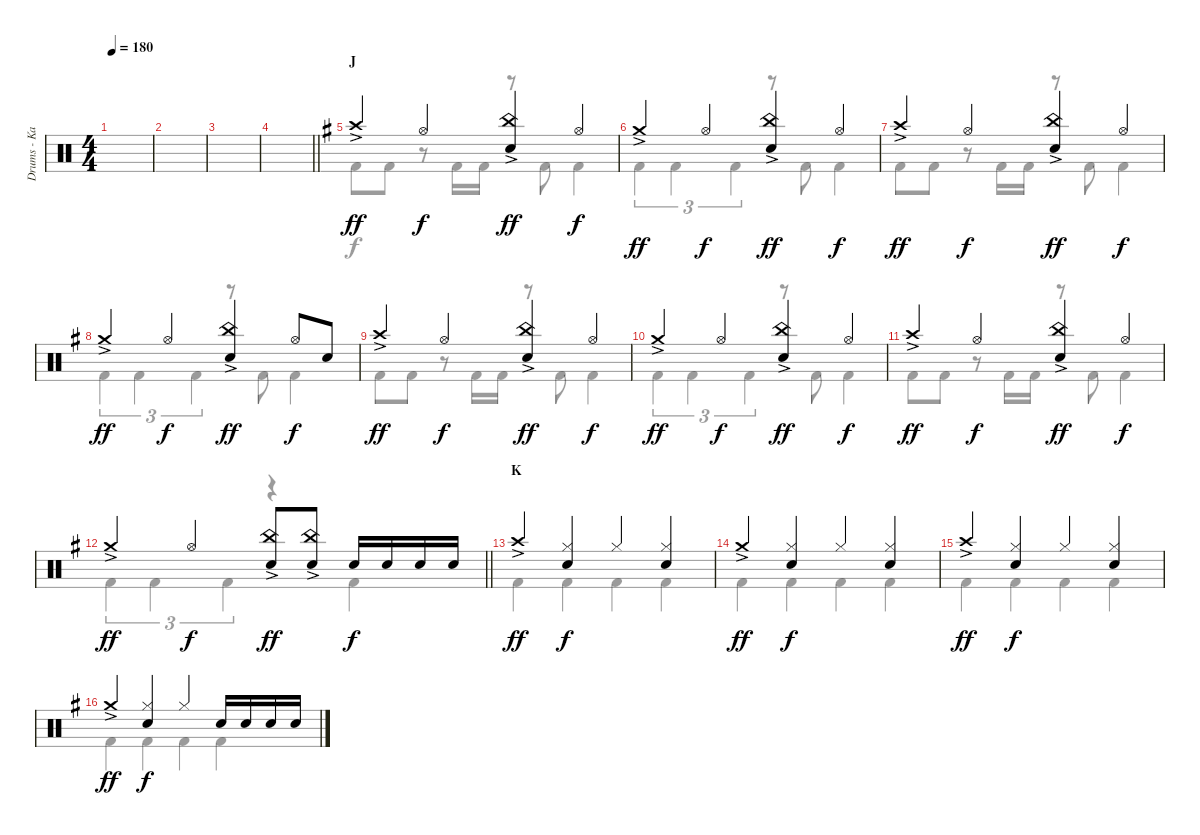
\track ("Drums - Kai" "Drums - Ka") {instrument percussion}
\staff {score}
\articulation defaults
\voice
\ts (4 4)
\tempo 180
\clef neutral
\ks c
|
|
|
\barLineRight lightlight
|
\section ("" "J")
\ks g "Crash high (hit)"{ac}.4{dy ff} "Hi-Hat (open)".4{dy f}
("China (hit)"{ac} "Snare (hit) 2").4{dy ff} "Hi-Hat (open)".4{dy f} |
"Crash medium (hit)"{ac}.4{dy ff} "Hi-Hat (open)".4{dy f} ("China (hit)"{ac} "Snare (hit) 2").4{dy ff} "Hi-Hat (open)".4{dy f} |
"Crash high (hit)"{ac}.4{dy ff} "Hi-Hat (open)".4{dy f} ("China (hit)"{ac} "Snare (hit) 2").4{dy ff} "Hi-Hat (open)".4{dy f} |
"Crash medium (hit)"{ac}.4{dy ff} "Hi-Hat (open)".4{dy f} ("China (hit)"{ac} "Snare (hit) 2").4{dy ff} "Hi-Hat (open)".8{dy f} "Snare (hit) 2".8 |
"Crash high (hit)"{ac}.4{dy ff} "Hi-Hat (open)".4{dy f} ("China (hit)"{ac} "Snare (hit) 2").4{dy ff} "Hi-Hat (open)".4{dy f} |
"Crash medium (hit)"{ac}.4{dy ff} "Hi-Hat (open)".4{dy f} ("China (hit)"{ac} "Snare (hit) 2").4{dy ff} "Hi-Hat (open)".4{dy f} |
"Crash high (hit)"{ac}.4{dy ff} "Hi-Hat (open)".4{dy f} ("China (hit)"{ac} "Snare (hit) 2").4{dy ff} "Hi-Hat (open)".4{dy f} |
\barLineRight lightlight "Crash medium (hit)"{ac}.4{dy ff} "Hi-Hat (open)".4{dy f}
("China (hit)"{ac} "Snare (hit) 2").8{dy ff} ("China (hit)"{ac} "Snare (hit) 2").8 "Snare (hit) 2".16{dy f} "Snare (hit) 2".16 "Snare (hit) 2".16 "Snare (hit) 2".16 |
\section ("" "K")
"Crash high (hit)"{ac}.4{dy ff} ("Hi-Hat (closed)" "Snare (hit) 2").4{dy f} "Hi-Hat (closed)".4 ("Hi-Hat (closed)" "Snare (hit) 2").4 |
"Crash medium (hit)"{ac}.4{dy ff} ("Hi-Hat (closed)" "Snare (hit) 2").4{dy f} "Hi-Hat (closed)".4 ("Hi-Hat (closed)" "Snare (hit) 2").4 |
"Crash high (hit)"{ac}.4{dy ff} ("Hi-Hat (closed)" "Snare (hit) 2").4{dy f} "Hi-Hat (closed)".4 ("Hi-Hat (closed)" "Snare (hit) 2").4 |
"Crash medium (hit)"{ac}.4{dy ff} ("Hi-Hat (closed)" "Snare (hit) 2").4{dy f} "Hi-Hat (closed)".4 "Snare (hit) 2".16 "Snare (hit) 2".16 "Snare (hit) 2".16 "Snare (hit) 2".16
\voice
\clef neutral
\ottava regular
\simile none
\ks c
|
|
|
\barLineRight lightlight
|
\ks g "Kick (hit) 2".8 "Kick (hit) 2".8
r.8 "Kick (hit) 2".16 "Kick (hit) 2".16 r.8 "Kick (hit) 2".8 "Kick (hit) 2".4 |
"Kick (hit) 2".4{tu (3 2)} "Kick (hit) 2".4{tu (3 2)} "Kick (hit) 2".4{tu (3 2)} r.8 "Kick (hit) 2".8 "Kick (hit) 2".4 |
"Kick (hit) 2".8 "Kick (hit) 2".8 r.8 "Kick (hit) 2".16 "Kick (hit) 2".16 r.8 "Kick (hit) 2".8 "Kick (hit) 2".4 |
"Kick (hit) 2".4{tu (3 2)} "Kick (hit) 2".4{tu (3 2)} "Kick (hit) 2".4{tu (3 2)} r.8 "Kick (hit) 2".8 "Kick (hit) 2".4 |
"Kick (hit) 2".8 "Kick (hit) 2".8 r.8 "Kick (hit) 2".16 "Kick (hit) 2".16 r.8 "Kick (hit) 2".8 "Kick (hit) 2".4 |
"Kick (hit) 2".4{tu (3 2)} "Kick (hit) 2".4{tu (3 2)} "Kick (hit) 2".4{tu (3 2)} r.8 "Kick (hit) 2".8 "Kick (hit) 2".4 |
"Kick (hit) 2".8 "Kick (hit) 2".8 r.8 "Kick (hit) 2".16 "Kick (hit) 2".16 r.8 "Kick (hit) 2".8 "Kick (hit) 2".4 |
\barLineRight lightlight "Kick (hit) 2".4{tu (3 2)} "Kick (hit) 2".4{tu (3 2)} "Kick (hit) 2".4{tu (3 2)}
r.4 "Kick (hit) 2".4 |
"Kick (hit) 2".4 "Kick (hit) 2".4 "Kick (hit) 2".4 "Kick (hit) 2".4 |
"Kick (hit) 2".4 "Kick (hit) 2".4 "Kick (hit) 2".4 "Kick (hit) 2".4 |
"Kick (hit) 2".4 "Kick (hit) 2".4 "Kick (hit) 2".4 "Kick (hit) 2".4 |
"Kick (hit) 2".4 "Kick (hit) 2".4 "Kick (hit) 2".4 "Kick (hit) 2".4
